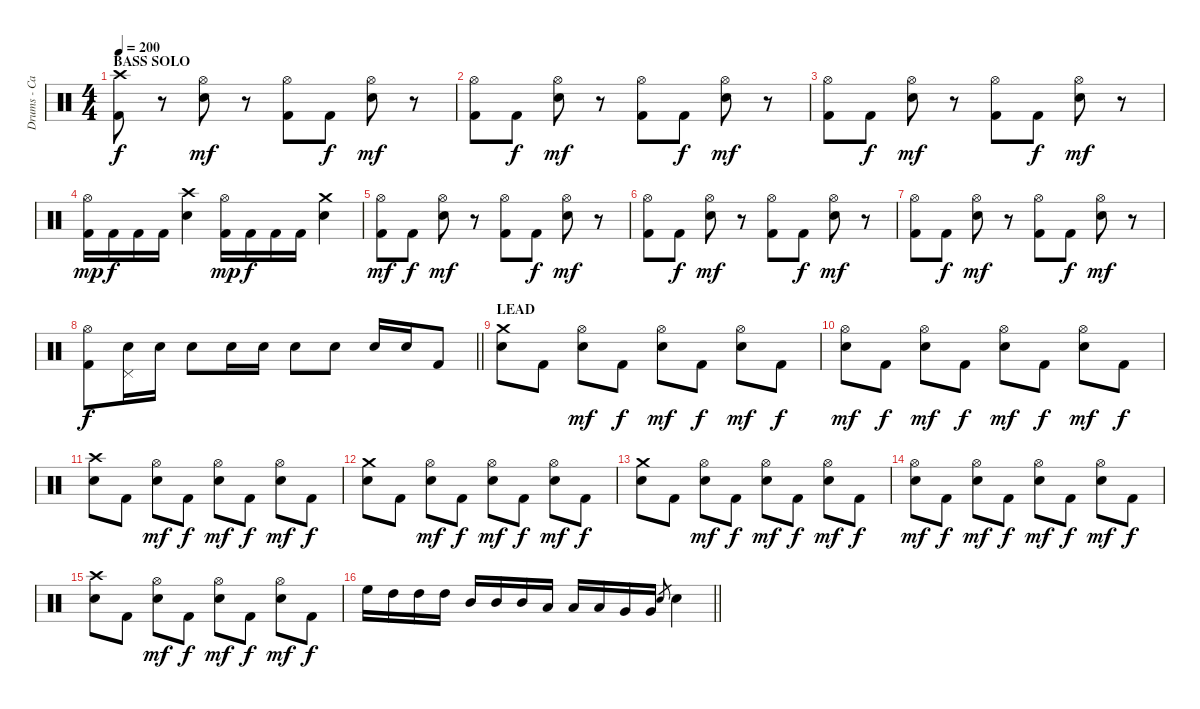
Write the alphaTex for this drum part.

\track ("Drums - Carlos Cruz" "Drums - Ca") {instrument percussion}
\staff {score}
\articulation defaults
\ts (4 4)
\section ("" "BASS SOLO")
\tempo 200
\clef neutral
\ks c
("Crash high (hit)" "Kick (hit) 2").8{dy f} r.8 ("Hi-Hat (open)" "Snare (hit) 2").8{dy mf} r.8 ("Hi-Hat (open)" "Kick (hit) 2").8 "Kick (hit) 2".8{dy f} ("Hi-Hat (open)" "Snare (hit) 2").8{dy mf} r.8 |
("Hi-Hat (open)" "Kick (hit) 2").8 "Kick (hit) 2".8{dy f} ("Hi-Hat (open)" "Snare (hit) 2").8{dy mf} r.8 ("Hi-Hat (open)" "Kick (hit) 2").8 "Kick (hit) 2".8{dy f} ("Hi-Hat (open)" "Snare (hit) 2").8{dy mf} r.8 |
("Hi-Hat (open)" "Kick (hit) 2").8 "Kick (hit) 2".8{dy f} ("Hi-Hat (open)" "Snare (hit) 2").8{dy mf} r.8 ("Hi-Hat (open)" "Kick (hit) 2").8 "Kick (hit) 2".8{dy f} ("Hi-Hat (open)" "Snare (hit) 2").8{dy mf} r.8 |
("Hi-Hat (open)" "Kick (hit) 2").16{dy mp} "Kick (hit) 2".16{dy f} "Kick (hit) 2".16 "Kick (hit) 2".16 ("Crash high (hit)" "Snare (hit) 2").4 ("Hi-Hat (open)" "Kick (hit) 2").16{dy mp} "Kick (hit) 2".16{dy f} "Kick (hit) 2".16 "Kick (hit) 2".16 ("Crash medium (hit)" "Snare (hit) 2").4 |
("Hi-Hat (open)" "Kick (hit) 2").8{dy mf} "Kick (hit) 2".8{dy f} ("Hi-Hat (open)" "Snare (hit) 2").8{dy mf} r.8 ("Hi-Hat (open)" "Kick (hit) 2").8 "Kick (hit) 2".8{dy f} ("Hi-Hat (open)" "Snare (hit) 2").8{dy mf} r.8 |
("Hi-Hat (open)" "Kick (hit) 2").8 "Kick (hit) 2".8{dy f} ("Hi-Hat (open)" "Snare (hit) 2").8{dy mf} r.8 ("Hi-Hat (open)" "Kick (hit) 2").8 "Kick (hit) 2".8{dy f} ("Hi-Hat (open)" "Snare (hit) 2").8{dy mf} r.8 |
("Hi-Hat (open)" "Kick (hit) 2").8 "Kick (hit) 2".8{dy f} ("Hi-Hat (open)" "Snare (hit) 2").8{dy mf} r.8 ("Hi-Hat (open)" "Kick (hit) 2").8 "Kick (hit) 2".8{dy f} ("Hi-Hat (open)" "Snare (hit) 2").8{dy mf} r.8 |
\barLineRight lightlight
("Hi-Hat (open)" "Kick (hit) 2").8{dy f} ("Pedal Hi-Hat (hit)" "Snare (hit) 2").16 "Snare (hit) 2".16 "Snare (hit) 2".8 "Snare (hit) 2".16 "Snare (hit) 2".16 "Snare (hit) 2".8 "Snare (hit) 2".8 "Snare (hit) 2".16 "Snare (hit) 2".16 "Kick (hit) 2".8 |
\section ("" "LEAD")
("Crash medium (hit)" "Snare (hit) 2").8 "Kick (hit) 2".8 ("Hi-Hat (open)" "Snare (hit) 2").8{dy mf} "Kick (hit) 2".8{dy f} ("Hi-Hat (open)" "Snare (hit) 2").8{dy mf} "Kick (hit) 2".8{dy f} ("Hi-Hat (open)" "Snare (hit) 2").8{dy mf} "Kick (hit) 2".8{dy f} |
("Hi-Hat (open)" "Snare (hit) 2").8{dy mf} "Kick (hit) 2".8{dy f} ("Hi-Hat (open)" "Snare (hit) 2").8{dy mf} "Kick (hit) 2".8{dy f} ("Hi-Hat (open)" "Snare (hit) 2").8{dy mf} "Kick (hit) 2".8{dy f} ("Hi-Hat (open)" "Snare (hit) 2").8{dy mf} "Kick (hit) 2".8{dy f} |
("Crash high (hit)" "Snare (hit) 2").8 "Kick (hit) 2".8 ("Hi-Hat (open)" "Snare (hit) 2").8{dy mf} "Kick (hit) 2".8{dy f} ("Hi-Hat (open)" "Snare (hit) 2").8{dy mf} "Kick (hit) 2".8{dy f} ("Hi-Hat (open)" "Snare (hit) 2").8{dy mf} "Kick (hit) 2".8{dy f} |
("Crash medium (hit)" "Snare (hit) 2").8 "Kick (hit) 2".8 ("Hi-Hat (open)" "Snare (hit) 2").8{dy mf} "Kick (hit) 2".8{dy f} ("Hi-Hat (open)" "Snare (hit) 2").8{dy mf} "Kick (hit) 2".8{dy f} ("Hi-Hat (open)" "Snare (hit) 2").8{dy mf} "Kick (hit) 2".8{dy f} |
("Crash medium (hit)" "Snare (hit) 2").8 "Kick (hit) 2".8 ("Hi-Hat (open)" "Snare (hit) 2").8{dy mf} "Kick (hit) 2".8{dy f} ("Hi-Hat (open)" "Snare (hit) 2").8{dy mf} "Kick (hit) 2".8{dy f} ("Hi-Hat (open)" "Snare (hit) 2").8{dy mf} "Kick (hit) 2".8{dy f} |
("Hi-Hat (open)" "Snare (hit) 2").8{dy mf} "Kick (hit) 2".8{dy f} ("Hi-Hat (open)" "Snare (hit) 2").8{dy mf} "Kick (hit) 2".8{dy f} ("Hi-Hat (open)" "Snare (hit) 2").8{dy mf} "Kick (hit) 2".8{dy f} ("Hi-Hat (open)" "Snare (hit) 2").8{dy mf} "Kick (hit) 2".8{dy f} |
("Crash high (hit)" "Snare (hit) 2").8 "Kick (hit) 2".8 ("Hi-Hat (open)" "Snare (hit) 2").8{dy mf} "Kick (hit) 2".8{dy f} ("Hi-Hat (open)" "Snare (hit) 2").8{dy mf} "Kick (hit) 2".8{dy f} ("Hi-Hat (open)" "Snare (hit) 2").8{dy mf} "Kick (hit) 2".8{dy f} |
\barLineRight lightlight "High Floor Tom (hit)".16 "High Tom (hit)".16 "High Tom (hit)".16 "High Tom (hit)".16 "Mid Tom (hit)".16 "Mid Tom (hit)".16 "Mid Tom (hit)".16 "Low Tom (hit)".16 "Low Tom (hit)".16 "Low Tom (hit)".16 "Very Low Tom (hit)".16 "Very Low Tom (hit)".16 "Snare (hit) 2".8{gr} "Snare (hit) 2".4
